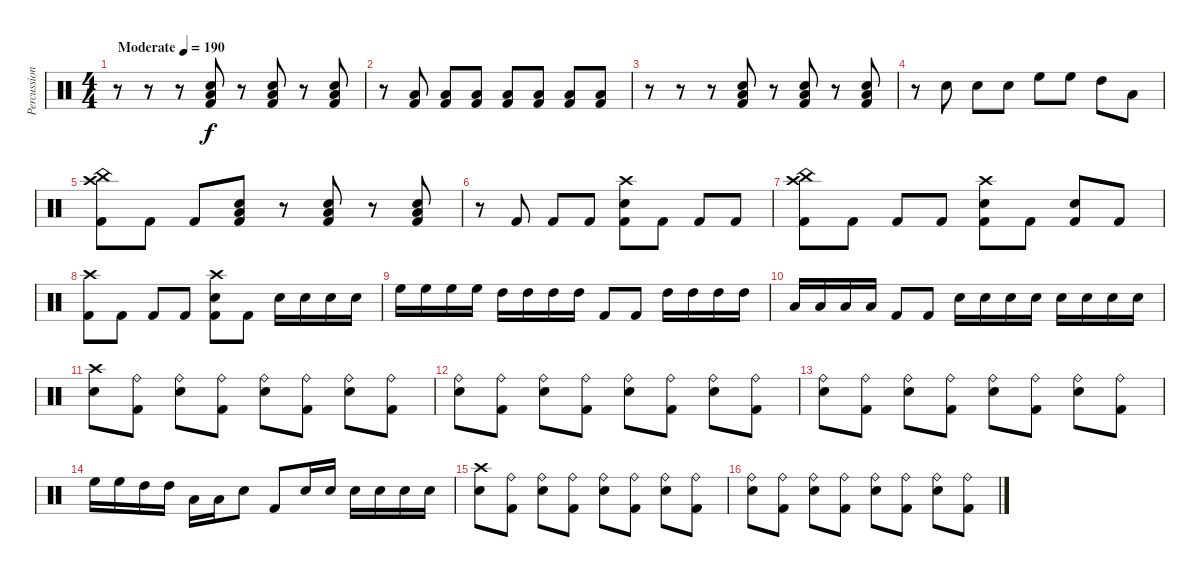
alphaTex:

\track ("Percussion" "Percussion") {instrument percussion}
\staff {score}
\articulation defaults
\ts (4 4)
\tempo (190 "Moderate")
\clef neutral
\ks c
r.8{dy f} r.8 r.8 ("Electric Snare (hit)" "Low Floor Tom (hit)" "Kick (hit) 2").8 r.8 ("Electric Snare (hit)" "Low Floor Tom (hit)" "Kick (hit) 2").8 r.8 ("Electric Snare (hit)" "Low Floor Tom (hit)" "Kick (hit) 2").8 |
r.8 ("Low Floor Tom (hit)" "Kick (hit) 2").8 ("Low Floor Tom (hit)" "Kick (hit) 2").8 ("Low Floor Tom (hit)" "Kick (hit) 2").8 ("Low Floor Tom (hit)" "Kick (hit) 2").8 ("Low Floor Tom (hit)" "Kick (hit) 2").8 ("Low Floor Tom (hit)" "Kick (hit) 2").8 ("Low Floor Tom (hit)" "Kick (hit) 2").8 |
r.8 r.8 r.8 ("Electric Snare (hit)" "Low Floor Tom (hit)" "Kick (hit) 2").8 r.8 ("Electric Snare (hit)" "Low Floor Tom (hit)" "Kick (hit) 2").8 r.8 ("Electric Snare (hit)" "Low Floor Tom (hit)" "Kick (hit) 2").8 |
r.8 "Electric Snare (hit)".8 "Electric Snare (hit)".8 "Electric Snare (hit)".8 "High Floor Tom (hit)".8 "High Floor Tom (hit)".8 "High Tom (hit)".8 "Low Tom (hit)".8 |
("Crash high (hit)" "China (hit)" "Kick (hit) 2").8 "Kick (hit) 2".8 "Kick (hit) 2".8 ("Electric Snare (hit)" "Low Floor Tom (hit)" "Kick (hit) 2").8 r.8 ("Electric Snare (hit)" "Low Floor Tom (hit)" "Kick (hit) 2").8 r.8 ("Electric Snare (hit)" "Low Floor Tom (hit)" "Kick (hit) 2").8 |
r.8 "Kick (hit) 2".8 "Kick (hit) 2".8 "Kick (hit) 2".8 ("Crash high (hit)" "Electric Snare (hit)" "Kick (hit) 2").8 "Kick (hit) 2".8 "Kick (hit) 2".8 "Kick (hit) 2".8 |
("Crash high (hit)" "China (hit)" "Kick (hit) 2").8 "Kick (hit) 2".8 "Kick (hit) 2".8 "Kick (hit) 2".8 ("Crash high (hit)" "Electric Snare (hit)" "Kick (hit) 2").8 "Kick (hit) 2".8 ("Electric Snare (hit)" "Kick (hit) 2").8 "Kick (hit) 2".8 |
("Crash high (hit)" "Kick (hit) 2").8 "Kick (hit) 2".8 "Kick (hit) 2".8 "Kick (hit) 2".8 ("Crash high (hit)" "Electric Snare (hit)" "Kick (hit) 2").8 "Kick (hit) 2".8 "Electric Snare (hit)".16 "Electric Snare (hit)".16 "Electric Snare (hit)".16 "Electric Snare (hit)".16 |
"High Floor Tom (hit)".16 "High Floor Tom (hit)".16 "High Floor Tom (hit)".16 "High Floor Tom (hit)".16 "High Tom (hit)".16 "High Tom (hit)".16 "High Tom (hit)".16 "High Tom (hit)".16 "Kick (hit) 2".8 "Kick (hit) 2".8 "High Tom (hit)".16 "High Tom (hit)".16 "High Tom (hit)".16 "High Tom (hit)".16 |
"Low Tom (hit)".16 "Low Tom (hit)".16 "Low Tom (hit)".16 "Low Tom (hit)".16 "Kick (hit) 2".8 "Kick (hit) 2".8 "Electric Snare (hit)".16 "Electric Snare (hit)".16 "Electric Snare (hit)".16 "Electric Snare (hit)".16 "Electric Snare (hit)".16 "Electric Snare (hit)".16 "Electric Snare (hit)".16 "Electric Snare (hit)".16 |
("Crash high (hit)" "Electric Snare (hit)").8 ("Ride (bell)" "Kick (hit) 2").8 ("Ride (bell)" "Electric Snare (hit)").8 ("Ride (bell)" "Kick (hit) 2").8 ("Ride (bell)" "Electric Snare (hit)").8 ("Ride (bell)" "Kick (hit) 2").8 ("Ride (bell)" "Electric Snare (hit)").8 ("Ride (bell)" "Kick (hit) 2").8 |
("Ride (bell)" "Electric Snare (hit)").8 ("Ride (bell)" "Kick (hit) 2").8 ("Ride (bell)" "Electric Snare (hit)").8 ("Ride (bell)" "Kick (hit) 2").8 ("Ride (bell)" "Electric Snare (hit)").8 ("Ride (bell)" "Kick (hit) 2").8 ("Ride (bell)" "Electric Snare (hit)").8 ("Ride (bell)" "Kick (hit) 2").8 |
("Ride (bell)" "Electric Snare (hit)").8 ("Ride (bell)" "Kick (hit) 2").8 ("Ride (bell)" "Electric Snare (hit)").8 ("Ride (bell)" "Kick (hit) 2").8 ("Ride (bell)" "Electric Snare (hit)").8 ("Ride (bell)" "Kick (hit) 2").8 ("Ride (bell)" "Electric Snare (hit)").8 ("Ride (bell)" "Kick (hit) 2").8 |
"High Floor Tom (hit)".16 "High Floor Tom (hit)".16 "High Tom (hit)".16 "High Tom (hit)".16 "Low Tom (hit)".16 "Low Tom (hit)".16 "Electric Snare (hit)".8 "Kick (hit) 2".8 "Electric Snare (hit)".16 "Electric Snare (hit)".16 "Electric Snare (hit)".16 "Electric Snare (hit)".16 "Electric Snare (hit)".16 "Electric Snare (hit)".16 |
("Crash high (hit)" "Electric Snare (hit)").8 ("Ride (bell)" "Kick (hit) 2").8 ("Ride (bell)" "Electric Snare (hit)").8 ("Ride (bell)" "Kick (hit) 2").8 ("Ride (bell)" "Electric Snare (hit)").8 ("Ride (bell)" "Kick (hit) 2").8 ("Ride (bell)" "Electric Snare (hit)").8 ("Ride (bell)" "Kick (hit) 2").8 |
("Ride (bell)" "Electric Snare (hit)").8 ("Ride (bell)" "Kick (hit) 2").8 ("Ride (bell)" "Electric Snare (hit)").8 ("Ride (bell)" "Kick (hit) 2").8 ("Ride (bell)" "Electric Snare (hit)").8 ("Ride (bell)" "Kick (hit) 2").8 ("Ride (bell)" "Electric Snare (hit)").8 ("Ride (bell)" "Kick (hit) 2").8
